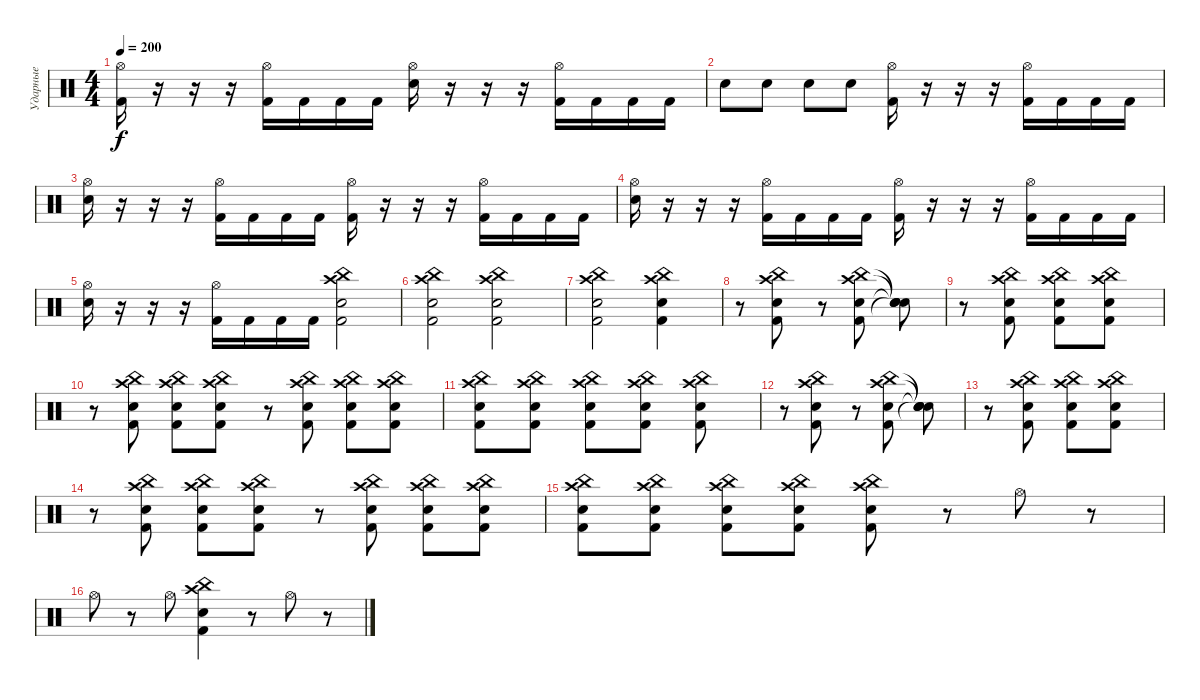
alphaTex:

\track ("Ударные" "Ударные") {instrument percussion}
\staff {score}
\articulation defaults
\ts (4 4)
\tempo 200
\clef neutral
\ks c
("Kick (hit) 2" "Hi-Hat (open)").16{dy f} r.16 r.16 r.16 ("Kick (hit) 2" "Hi-Hat (open)").16 "Kick (hit) 2".16 "Kick (hit) 2".16 "Kick (hit) 2".16 ("Electric Snare (hit)" "Hi-Hat (open)").16 r.16 r.16 r.16 ("Kick (hit) 2" "Hi-Hat (open)").16 "Kick (hit) 2".16 "Kick (hit) 2".16 "Kick (hit) 2".16 |
"Electric Snare (hit)".8 "Electric Snare (hit)".8 "Electric Snare (hit)".8 "Electric Snare (hit)".8 ("Kick (hit) 2" "Hi-Hat (open)").16 r.16 r.16 r.16 ("Hi-Hat (open)" "Kick (hit) 2").16 "Kick (hit) 2".16 "Kick (hit) 2".16 "Kick (hit) 2".16 |
("Electric Snare (hit)" "Hi-Hat (open)").16 r.16 r.16 r.16 ("Kick (hit) 2" "Hi-Hat (open)").16 "Kick (hit) 2".16 "Kick (hit) 2".16 "Kick (hit) 2".16 ("Kick (hit) 2" "Hi-Hat (open)").16 r.16 r.16 r.16 ("Kick (hit) 2" "Hi-Hat (open)").16 "Kick (hit) 2".16 "Kick (hit) 2".16 "Kick (hit) 2".16 |
("Electric Snare (hit)" "Hi-Hat (open)").16 r.16 r.16 r.16 ("Kick (hit) 2" "Hi-Hat (open)").16 "Kick (hit) 2".16 "Kick (hit) 2".16 "Kick (hit) 2".16 ("Kick (hit) 2" "Hi-Hat (open)").16 r.16 r.16 r.16 ("Kick (hit) 2" "Hi-Hat (open)").16 "Kick (hit) 2".16 "Kick (hit) 2".16 "Kick (hit) 2".16 |
("Electric Snare (hit)" "Hi-Hat (open)").16 r.16 r.16 r.16 ("Kick (hit) 2" "Hi-Hat (open)").16 "Kick (hit) 2".16 "Kick (hit) 2".16 "Kick (hit) 2".16 ("Kick (hit) 2" "Electric Snare (hit)" "Crash high (hit)" "China (hit)").2 |
("China (hit)" "Crash high (hit)" "Kick (hit) 2" "Electric Snare (hit)").2 ("Electric Snare (hit)" "Kick (hit) 2" "Crash high (hit)" "China (hit)").2 |
("China (hit)" "Crash high (hit)" "Kick (hit) 2" "Electric Snare (hit)").2 ("Kick (hit) 2" "Electric Snare (hit)" "Crash high (hit)" "China (hit)").4 |
r.8 ("Electric Snare (hit)" "Kick (hit) 2" "Crash high (hit)" "China (hit)").8 r.8 ("China (hit)" "Crash high (hit)" "Kick (hit) 2" "Electric Snare (hit)").8 ("Snare (hit)"{t} "Snare (hit)"{t} "Snare (hit)"{t} "Snare (hit)"{t}).8 |
r.8 ("Electric Snare (hit)" "Kick (hit) 2" "Crash high (hit)" "China (hit)").8 ("China (hit)" "Crash high (hit)" "Kick (hit) 2" "Electric Snare (hit)").8 ("Electric Snare (hit)" "Kick (hit) 2" "Crash high (hit)" "China (hit)").8 |
r.8 ("China (hit)" "Crash high (hit)" "Kick (hit) 2" "Electric Snare (hit)").8 ("Electric Snare (hit)" "Kick (hit) 2" "Crash high (hit)" "China (hit)").8 ("China (hit)" "Crash high (hit)" "Kick (hit) 2" "Electric Snare (hit)").8 r.8 ("Kick (hit) 2" "Electric Snare (hit)" "Crash high (hit)" "China (hit)").8 ("China (hit)" "Crash high (hit)" "Kick (hit) 2" "Electric Snare (hit)").8 ("Electric Snare (hit)" "Kick (hit) 2" "Crash high (hit)" "China (hit)").8 |
("China (hit)" "Crash high (hit)" "Kick (hit) 2" "Electric Snare (hit)").8 ("Electric Snare (hit)" "Kick (hit) 2" "Crash high (hit)" "China (hit)").8 ("China (hit)" "Crash high (hit)" "Kick (hit) 2" "Electric Snare (hit)").8 ("Electric Snare (hit)" "Kick (hit) 2" "Crash high (hit)" "China (hit)").8 ("Kick (hit) 2" "Electric Snare (hit)" "Crash high (hit)" "China (hit)").8 |
r.8 ("Electric Snare (hit)" "Kick (hit) 2" "Crash high (hit)" "China (hit)").8 r.8 ("China (hit)" "Crash high (hit)" "Kick (hit) 2" "Electric Snare (hit)").8 ("Snare (hit)"{t} "Snare (hit)"{t} "Snare (hit)"{t} "Snare (hit)"{t}).8 |
r.8 ("Electric Snare (hit)" "Kick (hit) 2" "Crash high (hit)" "China (hit)").8 ("China (hit)" "Crash high (hit)" "Kick (hit) 2" "Electric Snare (hit)").8 ("Electric Snare (hit)" "Kick (hit) 2" "Crash high (hit)" "China (hit)").8 |
r.8 ("China (hit)" "Crash high (hit)" "Kick (hit) 2" "Electric Snare (hit)").8 ("Electric Snare (hit)" "Kick (hit) 2" "Crash high (hit)" "China (hit)").8 ("China (hit)" "Crash high (hit)" "Kick (hit) 2" "Electric Snare (hit)").8 r.8 ("Kick (hit) 2" "Electric Snare (hit)" "Crash high (hit)" "China (hit)").8 ("China (hit)" "Crash high (hit)" "Kick (hit) 2" "Electric Snare (hit)").8 ("Electric Snare (hit)" "Kick (hit) 2" "Crash high (hit)" "China (hit)").8 |
("China (hit)" "Crash high (hit)" "Kick (hit) 2" "Electric Snare (hit)").8 ("Electric Snare (hit)" "Kick (hit) 2" "Crash high (hit)" "China (hit)").8 ("China (hit)" "Crash high (hit)" "Kick (hit) 2" "Electric Snare (hit)").8 ("Electric Snare (hit)" "Kick (hit) 2" "Crash high (hit)" "China (hit)").8 ("Kick (hit) 2" "Electric Snare (hit)" "Crash high (hit)" "China (hit)").8 r.8 "Hi-Hat (open)".8 r.8 |
"Hi-Hat (open)".8 r.8 "Hi-Hat (open)".8 ("Electric Snare (hit)" "Crash high (hit)" "China (hit)" "Kick (hit) 2").4 r.8 "Hi-Hat (open)".8 r.8
